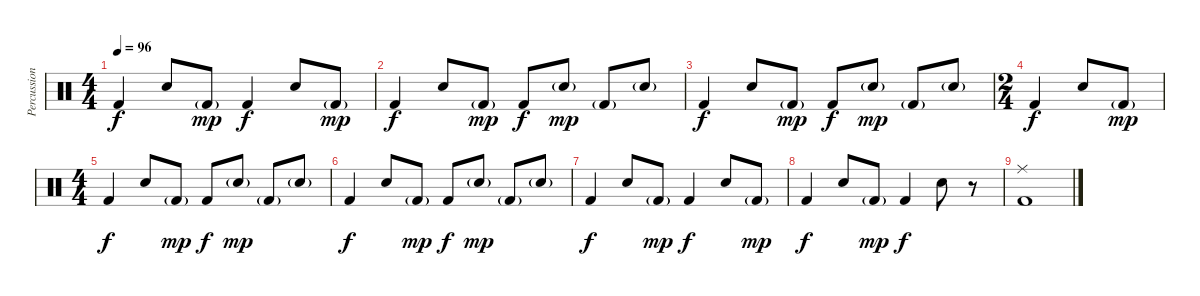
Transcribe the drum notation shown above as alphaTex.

\track ("Percussion" "Percussion") {instrument percussion}
\staff {score}
\articulation defaults
\ts (4 4)
\tempo 96
\clef neutral
\ks c "Kick (hit) 2".4{dy f} "Snare (hit) 2".8 "Kick (hit) 2"{g}.8{dy mp} "Kick (hit) 2".4{dy f} "Snare (hit) 2".8 "Kick (hit) 2"{g}.8{dy mp}
|
"Kick (hit) 2".4{dy f} "Snare (hit) 2".8 "Kick (hit) 2"{g}.8{dy mp} "Kick (hit) 2".8{dy f} "Snare (hit) 2"{g}.8{dy mp} "Kick (hit) 2"{g}.8 "Snare (hit) 2"{g}.8 |
"Kick (hit) 2".4{dy f} "Snare (hit) 2".8 "Kick (hit) 2"{g}.8{dy mp} "Kick (hit) 2".8{dy f} "Snare (hit) 2"{g}.8{dy mp} "Kick (hit) 2"{g}.8 "Snare (hit) 2"{g}.8 |
\ts (2 4)
"Kick (hit) 2".4{dy f} "Snare (hit) 2".8 "Kick (hit) 2"{g}.8{dy mp} |
\ts (4 4)
"Kick (hit) 2".4{dy f} "Snare (hit) 2".8 "Kick (hit) 2"{g}.8{dy mp} "Kick (hit) 2".8{dy f} "Snare (hit) 2"{g}.8{dy mp} "Kick (hit) 2"{g}.8 "Snare (hit) 2"{g}.8 |
"Kick (hit) 2".4{dy f} "Snare (hit) 2".8 "Kick (hit) 2"{g}.8{dy mp} "Kick (hit) 2".8{dy f} "Snare (hit) 2"{g}.8{dy mp} "Kick (hit) 2"{g}.8 "Snare (hit) 2"{g}.8 |
"Kick (hit) 2".4{dy f} "Snare (hit) 2".8 "Kick (hit) 2"{g}.8{dy mp} "Kick (hit) 2".4{dy f} "Snare (hit) 2".8 "Kick (hit) 2"{g}.8{dy mp} |
"Kick (hit) 2".4{dy f} "Snare (hit) 2".8 "Kick (hit) 2"{g}.8{dy mp} "Kick (hit) 2".4{dy f} "Snare (hit) 2".8 r.8 |
("Ride (middle)" "Kick (hit) 2").1
